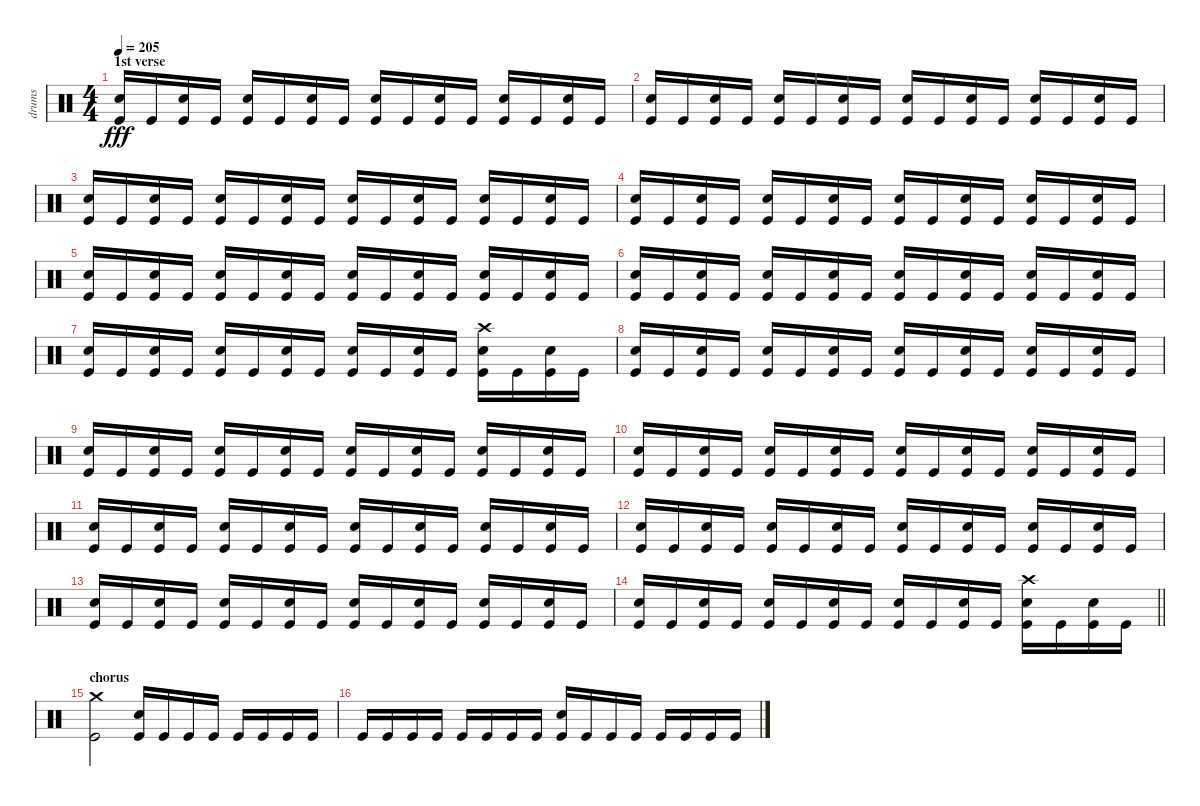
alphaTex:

\track ("drums" "drums") {instrument percussion}
\staff {score}
\articulation defaults
\ts (4 4)
\section ("" "1st verse")
\tempo 205
\clef neutral
\ks c
("Electric Snare (hit)" "Kick (hit)").16{dy fff} "Kick (hit)".16 ("Electric Snare (hit)" "Kick (hit)").16 "Kick (hit)".16 ("Electric Snare (hit)" "Kick (hit)").16 "Kick (hit)".16 ("Electric Snare (hit)" "Kick (hit)").16 "Kick (hit)".16 ("Electric Snare (hit)" "Kick (hit)").16 "Kick (hit)".16 ("Electric Snare (hit)" "Kick (hit)").16 "Kick (hit)".16 ("Electric Snare (hit)" "Kick (hit)").16 "Kick (hit)".16 ("Electric Snare (hit)" "Kick (hit)").16 "Kick (hit)".16 |
("Electric Snare (hit)" "Kick (hit)").16 "Kick (hit)".16 ("Electric Snare (hit)" "Kick (hit)").16 "Kick (hit)".16 ("Electric Snare (hit)" "Kick (hit)").16 "Kick (hit)".16 ("Electric Snare (hit)" "Kick (hit)").16 "Kick (hit)".16 ("Electric Snare (hit)" "Kick (hit)").16 "Kick (hit)".16 ("Electric Snare (hit)" "Kick (hit)").16 "Kick (hit)".16 ("Electric Snare (hit)" "Kick (hit)").16 "Kick (hit)".16 ("Electric Snare (hit)" "Kick (hit)").16 "Kick (hit)".16 |
("Electric Snare (hit)" "Kick (hit)").16 "Kick (hit)".16 ("Electric Snare (hit)" "Kick (hit)").16 "Kick (hit)".16 ("Electric Snare (hit)" "Kick (hit)").16 "Kick (hit)".16 ("Electric Snare (hit)" "Kick (hit)").16 "Kick (hit)".16 ("Electric Snare (hit)" "Kick (hit)").16 "Kick (hit)".16 ("Electric Snare (hit)" "Kick (hit)").16 "Kick (hit)".16 ("Electric Snare (hit)" "Kick (hit)").16 "Kick (hit)".16 ("Electric Snare (hit)" "Kick (hit)").16 "Kick (hit)".16 |
("Electric Snare (hit)" "Kick (hit)").16 "Kick (hit)".16 ("Electric Snare (hit)" "Kick (hit)").16 "Kick (hit)".16 ("Electric Snare (hit)" "Kick (hit)").16 "Kick (hit)".16 ("Electric Snare (hit)" "Kick (hit)").16 "Kick (hit)".16 ("Electric Snare (hit)" "Kick (hit)").16 "Kick (hit)".16 ("Electric Snare (hit)" "Kick (hit)").16 "Kick (hit)".16 ("Electric Snare (hit)" "Kick (hit)").16 "Kick (hit)".16 ("Electric Snare (hit)" "Kick (hit)").16 "Kick (hit)".16 |
("Electric Snare (hit)" "Kick (hit)").16 "Kick (hit)".16 ("Electric Snare (hit)" "Kick (hit)").16 "Kick (hit)".16 ("Electric Snare (hit)" "Kick (hit)").16 "Kick (hit)".16 ("Electric Snare (hit)" "Kick (hit)").16 "Kick (hit)".16 ("Electric Snare (hit)" "Kick (hit)").16 "Kick (hit)".16 ("Electric Snare (hit)" "Kick (hit)").16 "Kick (hit)".16 ("Electric Snare (hit)" "Kick (hit)").16 "Kick (hit)".16 ("Electric Snare (hit)" "Kick (hit)").16 "Kick (hit)".16 |
("Electric Snare (hit)" "Kick (hit)").16 "Kick (hit)".16 ("Electric Snare (hit)" "Kick (hit)").16 "Kick (hit)".16 ("Electric Snare (hit)" "Kick (hit)").16 "Kick (hit)".16 ("Electric Snare (hit)" "Kick (hit)").16 "Kick (hit)".16 ("Electric Snare (hit)" "Kick (hit)").16 "Kick (hit)".16 ("Electric Snare (hit)" "Kick (hit)").16 "Kick (hit)".16 ("Electric Snare (hit)" "Kick (hit)").16 "Kick (hit)".16 ("Electric Snare (hit)" "Kick (hit)").16 "Kick (hit)".16 |
("Electric Snare (hit)" "Kick (hit)").16 "Kick (hit)".16 ("Electric Snare (hit)" "Kick (hit)").16 "Kick (hit)".16 ("Electric Snare (hit)" "Kick (hit)").16 "Kick (hit)".16 ("Electric Snare (hit)" "Kick (hit)").16 "Kick (hit)".16 ("Electric Snare (hit)" "Kick (hit)").16 "Kick (hit)".16 ("Electric Snare (hit)" "Kick (hit)").16 "Kick (hit)".16 ("Crash high (hit)" "Electric Snare (hit)" "Kick (hit)").16 "Kick (hit)".16 ("Electric Snare (hit)" "Kick (hit)").16 "Kick (hit)".16 |
("Electric Snare (hit)" "Kick (hit)").16 "Kick (hit)".16 ("Electric Snare (hit)" "Kick (hit)").16 "Kick (hit)".16 ("Electric Snare (hit)" "Kick (hit)").16 "Kick (hit)".16 ("Electric Snare (hit)" "Kick (hit)").16 "Kick (hit)".16 ("Electric Snare (hit)" "Kick (hit)").16 "Kick (hit)".16 ("Electric Snare (hit)" "Kick (hit)").16 "Kick (hit)".16 ("Electric Snare (hit)" "Kick (hit)").16 "Kick (hit)".16 ("Electric Snare (hit)" "Kick (hit)").16 "Kick (hit)".16 |
("Electric Snare (hit)" "Kick (hit)").16 "Kick (hit)".16 ("Electric Snare (hit)" "Kick (hit)").16 "Kick (hit)".16 ("Electric Snare (hit)" "Kick (hit)").16 "Kick (hit)".16 ("Electric Snare (hit)" "Kick (hit)").16 "Kick (hit)".16 ("Electric Snare (hit)" "Kick (hit)").16 "Kick (hit)".16 ("Electric Snare (hit)" "Kick (hit)").16 "Kick (hit)".16 ("Electric Snare (hit)" "Kick (hit)").16 "Kick (hit)".16 ("Electric Snare (hit)" "Kick (hit)").16 "Kick (hit)".16 |
("Electric Snare (hit)" "Kick (hit)").16 "Kick (hit)".16 ("Electric Snare (hit)" "Kick (hit)").16 "Kick (hit)".16 ("Electric Snare (hit)" "Kick (hit)").16 "Kick (hit)".16 ("Electric Snare (hit)" "Kick (hit)").16 "Kick (hit)".16 ("Electric Snare (hit)" "Kick (hit)").16 "Kick (hit)".16 ("Electric Snare (hit)" "Kick (hit)").16 "Kick (hit)".16 ("Electric Snare (hit)" "Kick (hit)").16 "Kick (hit)".16 ("Electric Snare (hit)" "Kick (hit)").16 "Kick (hit)".16 |
("Electric Snare (hit)" "Kick (hit)").16 "Kick (hit)".16 ("Electric Snare (hit)" "Kick (hit)").16 "Kick (hit)".16 ("Electric Snare (hit)" "Kick (hit)").16 "Kick (hit)".16 ("Electric Snare (hit)" "Kick (hit)").16 "Kick (hit)".16 ("Electric Snare (hit)" "Kick (hit)").16 "Kick (hit)".16 ("Electric Snare (hit)" "Kick (hit)").16 "Kick (hit)".16 ("Electric Snare (hit)" "Kick (hit)").16 "Kick (hit)".16 ("Electric Snare (hit)" "Kick (hit)").16 "Kick (hit)".16 |
("Electric Snare (hit)" "Kick (hit)").16 "Kick (hit)".16 ("Electric Snare (hit)" "Kick (hit)").16 "Kick (hit)".16 ("Electric Snare (hit)" "Kick (hit)").16 "Kick (hit)".16 ("Electric Snare (hit)" "Kick (hit)").16 "Kick (hit)".16 ("Electric Snare (hit)" "Kick (hit)").16 "Kick (hit)".16 ("Electric Snare (hit)" "Kick (hit)").16 "Kick (hit)".16 ("Electric Snare (hit)" "Kick (hit)").16 "Kick (hit)".16 ("Electric Snare (hit)" "Kick (hit)").16 "Kick (hit)".16 |
("Electric Snare (hit)" "Kick (hit)").16 "Kick (hit)".16 ("Electric Snare (hit)" "Kick (hit)").16 "Kick (hit)".16 ("Electric Snare (hit)" "Kick (hit)").16 "Kick (hit)".16 ("Electric Snare (hit)" "Kick (hit)").16 "Kick (hit)".16 ("Electric Snare (hit)" "Kick (hit)").16 "Kick (hit)".16 ("Electric Snare (hit)" "Kick (hit)").16 "Kick (hit)".16 ("Electric Snare (hit)" "Kick (hit)").16 "Kick (hit)".16 ("Electric Snare (hit)" "Kick (hit)").16 "Kick (hit)".16 |
\barLineRight lightlight
("Electric Snare (hit)" "Kick (hit)").16 "Kick (hit)".16 ("Electric Snare (hit)" "Kick (hit)").16 "Kick (hit)".16 ("Electric Snare (hit)" "Kick (hit)").16 "Kick (hit)".16 ("Electric Snare (hit)" "Kick (hit)").16 "Kick (hit)".16 ("Electric Snare (hit)" "Kick (hit)").16 "Kick (hit)".16 ("Electric Snare (hit)" "Kick (hit)").16 "Kick (hit)".16 ("Crash high (hit)" "Electric Snare (hit)" "Kick (hit)").16 "Kick (hit)".16 ("Electric Snare (hit)" "Kick (hit)").16 "Kick (hit)".16 |
\section ("" "chorus")
("Crash medium (hit)" "Kick (hit)").2 ("Electric Snare (hit)" "Kick (hit)").16 "Kick (hit)".16 "Kick (hit)".16 "Kick (hit)".16 "Kick (hit)".16 "Kick (hit)".16 "Kick (hit)".16 "Kick (hit)".16 |
"Kick (hit)".16 "Kick (hit)".16 "Kick (hit)".16 "Kick (hit)".16 "Kick (hit)".16 "Kick (hit)".16 "Kick (hit)".16 "Kick (hit)".16 ("Electric Snare (hit)" "Kick (hit)").16 "Kick (hit)".16 "Kick (hit)".16 "Kick (hit)".16 "Kick (hit)".16 "Kick (hit)".16 "Kick (hit)".16 "Kick (hit)".16
